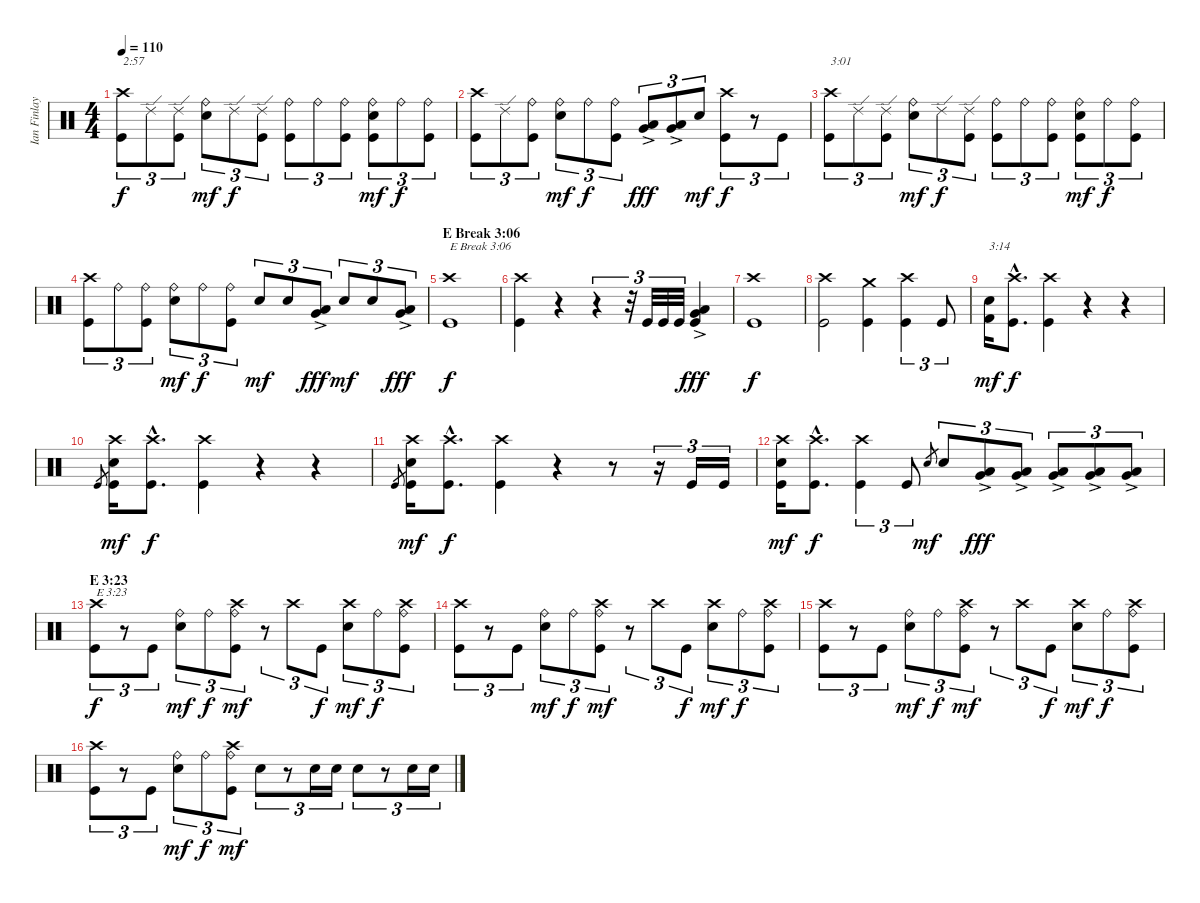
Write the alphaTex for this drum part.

\track ("Ian Finlay" "Ian Finlay") {instrument percussion}
\staff {score}
\articulation defaults
\ts (4 4)
\tempo 110
\clef neutral
\ks c
("Kick (hit)" "Crash high (hit)").8{tu (3 2) txt "2:57" dy f} "Ride (edge) 2".8{tu (3 2)} ("Kick (hit)" "Ride (edge) 2").8{tu (3 2)} ("Snare (hit) 2" "Ride (bell)").8{tu (3 2) dy mf} "Ride (edge) 2".8{tu (3 2) dy f} ("Kick (hit)" "Ride (edge) 2").8{tu (3 2)} ("Kick (hit)" "Ride (bell)").8{tu (3 2)} "Ride (bell)".8{tu (3 2)} ("Kick (hit)" "Ride (bell)").8{tu (3 2)} ("Kick (hit)" "Snare (hit) 2" "Ride (bell)").8{tu (3 2) dy mf} "Ride (bell)".8{tu (3 2) dy f} ("Kick (hit)" "Ride (bell)").8{tu (3 2)} |
("Kick (hit)" "Crash high (hit)").8{tu (3 2)} "Ride (edge) 2".8{tu (3 2)} ("Kick (hit)" "Ride (bell)").8{tu (3 2)} ("Snare (hit) 2" "Ride (bell)").8{tu (3 2) dy mf} "Ride (bell)".8{tu (3 2) dy f} ("Kick (hit)" "Ride (bell)").8{tu (3 2)} ("Very Low Tom (hit)"{ac} "Low Tom (hit)"{ac}).8{tu (3 2) dy fff} ("Low Floor Tom (hit)"{ac} "Very Low Tom (hit)"{ac}).8{tu (3 2)} "Snare (hit) 2".8{tu (3 2) dy mf} ("Kick (hit)" "Crash high (hit)").8{tu (3 2) dy f} r.8{tu (3 2)} "Kick (hit)".8{tu (3 2)} |
("Kick (hit)" "Crash high (hit)").8{tu (3 2) txt "3:01"} "Ride (edge) 2".8{tu (3 2)} ("Kick (hit)" "Ride (edge) 2").8{tu (3 2)} ("Snare (hit) 2" "Ride (bell)").8{tu (3 2) dy mf} "Ride (edge) 2".8{tu (3 2) dy f} ("Kick (hit)" "Ride (edge) 2").8{tu (3 2)} ("Kick (hit)" "Ride (bell)").8{tu (3 2)} "Ride (bell)".8{tu (3 2)} ("Kick (hit)" "Ride (bell)").8{tu (3 2)} ("Kick (hit)" "Snare (hit) 2" "Ride (bell)").8{tu (3 2) dy mf} "Ride (bell)".8{tu (3 2) dy f} ("Kick (hit)" "Ride (bell)").8{tu (3 2)} |
("Kick (hit)" "Crash high (hit)").8{tu (3 2)} "Ride (bell)".8{tu (3 2)} ("Kick (hit)" "Ride (bell)").8{tu (3 2)} ("Snare (hit) 2" "Ride (bell)").8{tu (3 2) dy mf} "Ride (bell)".8{tu (3 2) dy f} ("Kick (hit)" "Ride (bell)").8{tu (3 2)} "Snare (hit) 2".8{tu (3 2) dy mf} "Snare (hit) 2".8{tu (3 2)} ("Very Low Tom (hit)"{ac} "Low Tom (hit)"{ac}).8{tu (3 2) dy fff} "Snare (hit) 2".8{tu (3 2) dy mf} "Snare (hit) 2".8{tu (3 2)} ("Very Low Tom (hit)"{ac} "Low Tom (hit)"{ac}).8{tu (3 2) dy fff} |
\section ("" "E Break 3:06")
("Kick (hit)" "Crash high (hit)").1{txt "E Break 3:06" dy f} |
("Kick (hit)" "Crash high (hit)").4 r.4 r.4{tu (3 2)} r.32{tu (3 2)} "Kick (hit)".32{tu (3 2)} "Kick (hit)".32{tu (3 2)} "Kick (hit)".32{tu (3 2)} ("Kick (hit)" "Low Floor Tom (hit)"{ac} "Very Low Tom (hit)"{ac}).4{dy fff} |
("Kick (hit)" "Crash high (hit)").1{dy f} |
("Kick (hit)" "Crash high (hit)").2 ("Kick (hit)" "Crash medium (hit)").4 ("Kick (hit)" "Crash high (hit)").4{tu (3 2)} "Kick (hit)".8{tu (3 2)} |
("Kick (hit) 2" "Snare (hit) 2").16{txt "3:14" dy mf} ("Kick (hit)"{hac} "Crash high (hit)"{hac}).8{d dy f} ("Kick (hit)" "Crash high (hit)").4 r.4 r.4 |
"Kick (hit)".8{gr} ("Kick (hit)" "Snare (hit) 2" "Crash high (hit)").16{dy mf} ("Kick (hit)"{hac} "Crash high (hit)"{hac}).8{d dy f} ("Kick (hit)" "Crash high (hit)").4 r.4 r.4 |
"Kick (hit)".8{gr} ("Kick (hit)" "Snare (hit) 2" "Crash high (hit)").16{dy mf} ("Kick (hit)"{hac} "Crash high (hit)"{hac}).8{d dy f} ("Kick (hit)" "Crash high (hit)").4 r.4 r.8 r.16{tu (3 2)} "Kick (hit)".16{tu (3 2)} "Kick (hit)".16{tu (3 2)} |
("Kick (hit)" "Snare (hit) 2" "Crash high (hit)").16{dy mf} ("Kick (hit)"{hac} "Crash high (hit)"{hac}).8{d dy f} ("Kick (hit)" "Crash high (hit)").4{tu (3 2)} "Kick (hit)".8{tu (3 2)} "Snare (hit) 2".8{gr dy mf} "Snare (hit) 2".8{tu (3 2)} ("Very Low Tom (hit)"{ac} "Low Tom (hit)"{ac}).8{tu (3 2) dy fff} ("Very Low Tom (hit)"{ac} "Low Tom (hit)"{ac}).8{tu (3 2)} ("Very Low Tom (hit)"{ac} "Low Tom (hit)"{ac}).8{tu (3 2)} ("Very Low Tom (hit)"{ac} "Low Tom (hit)"{ac}).8{tu (3 2)} ("Very Low Tom (hit)"{ac} "Low Floor Tom (hit)"{ac}).8{tu (3 2)} |
\section ("" "E 3:23")
("Kick (hit)" "Crash high (hit)").8{tu (3 2) txt "E 3:23" dy f} r.8{tu (3 2)} "Kick (hit)".8{tu (3 2)} ("Snare (hit) 2" "Ride (bell)").8{tu (3 2) dy mf} "Ride (bell)".8{tu (3 2) dy f} ("Kick (hit)" "Ride (bell)" "Crash high (hit)").8{tu (3 2) dy mf} r.8{tu (3 2)} "Crash high (hit)".8{tu (3 2)} "Kick (hit)".8{tu (3 2) dy f} ("Snare (hit) 2" "Crash high (hit)").8{tu (3 2) dy mf} "Ride (bell)".8{tu (3 2) dy f} ("Kick (hit)" "Ride (bell)" "Crash high (hit)").8{tu (3 2)} |
("Kick (hit)" "Crash high (hit)").8{tu (3 2)} r.8{tu (3 2)} "Kick (hit)".8{tu (3 2)} ("Snare (hit) 2" "Ride (bell)").8{tu (3 2) dy mf} "Ride (bell)".8{tu (3 2) dy f} ("Kick (hit)" "Ride (bell)" "Crash high (hit)").8{tu (3 2) dy mf} r.8{tu (3 2)} "Crash high (hit)".8{tu (3 2)} "Kick (hit)".8{tu (3 2) dy f} ("Snare (hit) 2" "Crash high (hit)").8{tu (3 2) dy mf} "Ride (bell)".8{tu (3 2) dy f} ("Kick (hit)" "Ride (bell)" "Crash high (hit)").8{tu (3 2)} |
("Kick (hit)" "Crash high (hit)").8{tu (3 2)} r.8{tu (3 2)} "Kick (hit)".8{tu (3 2)} ("Snare (hit) 2" "Ride (bell)").8{tu (3 2) dy mf} "Ride (bell)".8{tu (3 2) dy f} ("Kick (hit)" "Ride (bell)" "Crash high (hit)").8{tu (3 2) dy mf} r.8{tu (3 2)} "Crash high (hit)".8{tu (3 2)} "Kick (hit)".8{tu (3 2) dy f} ("Snare (hit) 2" "Crash high (hit)").8{tu (3 2) dy mf} "Ride (bell)".8{tu (3 2) dy f} ("Kick (hit)" "Ride (bell)" "Crash high (hit)").8{tu (3 2)} |
("Kick (hit)" "Crash high (hit)").8{tu (3 2)} r.8{tu (3 2)} "Kick (hit)".8{tu (3 2)} ("Snare (hit) 2" "Ride (bell)").8{tu (3 2) dy mf} "Ride (bell)".8{tu (3 2) dy f} ("Kick (hit)" "Ride (bell)" "Crash high (hit)").8{tu (3 2) dy mf} "Snare (hit) 2".8{tu (3 2)} r.8{tu (3 2)} "Snare (hit) 2".16{tu (3 2)} "Snare (hit) 2".16{tu (3 2)} "Snare (hit) 2".8{tu (3 2)} r.8{tu (3 2)} "Snare (hit) 2".16{tu (3 2)} "Snare (hit) 2".16{tu (3 2)}
